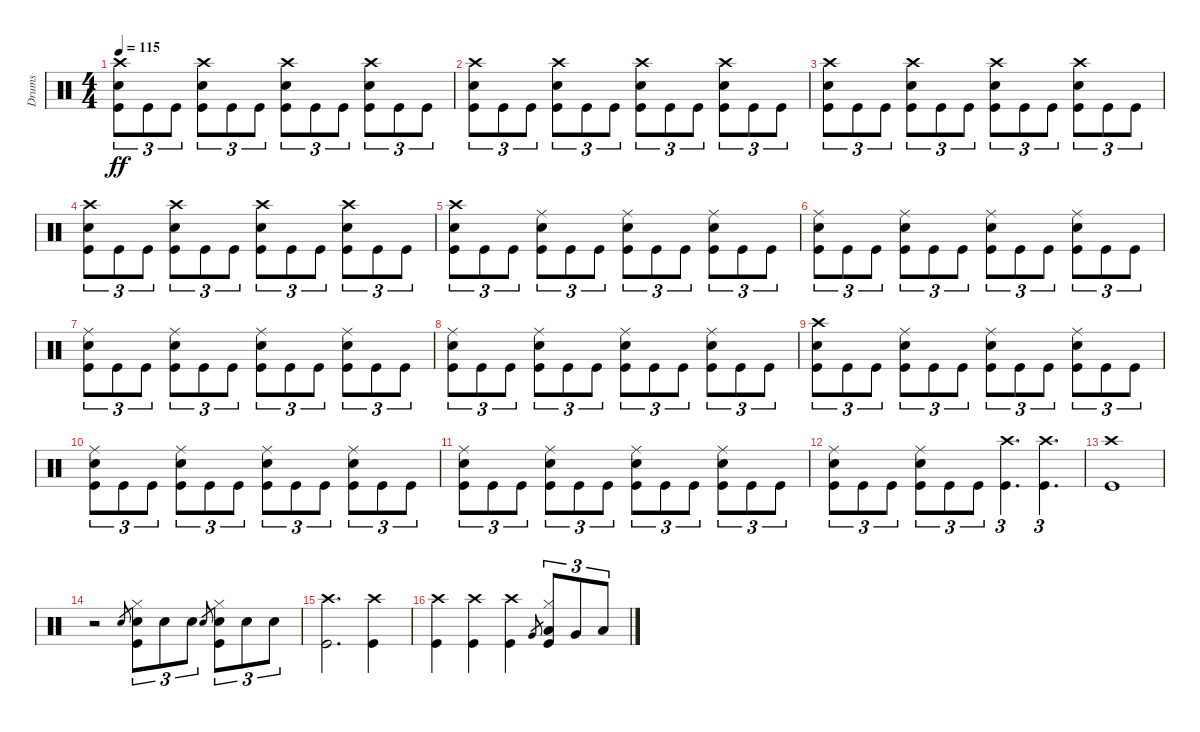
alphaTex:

\track ("Drums" "Drums") {instrument percussion}
\staff {score}
\articulation defaults
\ts (4 4)
\tempo 115
\clef neutral
\ks c
("Crash high (hit)" "Snare (hit) 2" "Kick (hit)").8{tu (3 2) dy ff} "Kick (hit)".8{tu (3 2)} "Kick (hit)".8{tu (3 2)} ("Crash high (hit)" "Snare (hit) 2" "Kick (hit)").8{tu (3 2)} "Kick (hit)".8{tu (3 2)} "Kick (hit)".8{tu (3 2)} ("Crash high (hit)" "Snare (hit) 2" "Kick (hit)").8{tu (3 2)} "Kick (hit)".8{tu (3 2)} "Kick (hit)".8{tu (3 2)} ("Crash high (hit)" "Snare (hit) 2" "Kick (hit)").8{tu (3 2)} "Kick (hit)".8{tu (3 2)} "Kick (hit)".8{tu (3 2)} |
("Crash high (hit)" "Snare (hit) 2" "Kick (hit)").8{tu (3 2)} "Kick (hit)".8{tu (3 2)} "Kick (hit)".8{tu (3 2)} ("Crash high (hit)" "Snare (hit) 2" "Kick (hit)").8{tu (3 2)} "Kick (hit)".8{tu (3 2)} "Kick (hit)".8{tu (3 2)} ("Crash high (hit)" "Snare (hit) 2" "Kick (hit)").8{tu (3 2)} "Kick (hit)".8{tu (3 2)} "Kick (hit)".8{tu (3 2)} ("Crash high (hit)" "Snare (hit) 2" "Kick (hit)").8{tu (3 2)} "Kick (hit)".8{tu (3 2)} "Kick (hit)".8{tu (3 2)} |
("Crash high (hit)" "Snare (hit) 2" "Kick (hit)").8{tu (3 2)} "Kick (hit)".8{tu (3 2)} "Kick (hit)".8{tu (3 2)} ("Crash high (hit)" "Snare (hit) 2" "Kick (hit)").8{tu (3 2)} "Kick (hit)".8{tu (3 2)} "Kick (hit)".8{tu (3 2)} ("Crash high (hit)" "Snare (hit) 2" "Kick (hit)").8{tu (3 2)} "Kick (hit)".8{tu (3 2)} "Kick (hit)".8{tu (3 2)} ("Crash high (hit)" "Snare (hit) 2" "Kick (hit)").8{tu (3 2)} "Kick (hit)".8{tu (3 2)} "Kick (hit)".8{tu (3 2)} |
("Crash high (hit)" "Snare (hit) 2" "Kick (hit)").8{tu (3 2)} "Kick (hit)".8{tu (3 2)} "Kick (hit)".8{tu (3 2)} ("Crash high (hit)" "Snare (hit) 2" "Kick (hit)").8{tu (3 2)} "Kick (hit)".8{tu (3 2)} "Kick (hit)".8{tu (3 2)} ("Crash high (hit)" "Snare (hit) 2" "Kick (hit)").8{tu (3 2)} "Kick (hit)".8{tu (3 2)} "Kick (hit)".8{tu (3 2)} ("Crash high (hit)" "Snare (hit) 2" "Kick (hit)").8{tu (3 2)} "Kick (hit)".8{tu (3 2)} "Kick (hit)".8{tu (3 2)} |
("Crash high (hit)" "Snare (hit) 2" "Kick (hit)").8{tu (3 2)} "Kick (hit)".8{tu (3 2)} "Kick (hit)".8{tu (3 2)} ("Ride (middle)" "Snare (hit) 2" "Kick (hit)").8{tu (3 2)} "Kick (hit)".8{tu (3 2)} "Kick (hit)".8{tu (3 2)} ("Ride (middle)" "Snare (hit) 2" "Kick (hit)").8{tu (3 2)} "Kick (hit)".8{tu (3 2)} "Kick (hit)".8{tu (3 2)} ("Ride (middle)" "Snare (hit) 2" "Kick (hit)").8{tu (3 2)} "Kick (hit)".8{tu (3 2)} "Kick (hit)".8{tu (3 2)} |
("Ride (middle)" "Snare (hit) 2" "Kick (hit)").8{tu (3 2)} "Kick (hit)".8{tu (3 2)} "Kick (hit)".8{tu (3 2)} ("Ride (middle)" "Snare (hit) 2" "Kick (hit)").8{tu (3 2)} "Kick (hit)".8{tu (3 2)} "Kick (hit)".8{tu (3 2)} ("Ride (middle)" "Snare (hit) 2" "Kick (hit)").8{tu (3 2)} "Kick (hit)".8{tu (3 2)} "Kick (hit)".8{tu (3 2)} ("Ride (middle)" "Snare (hit) 2" "Kick (hit)").8{tu (3 2)} "Kick (hit)".8{tu (3 2)} "Kick (hit)".8{tu (3 2)} |
("Ride (middle)" "Snare (hit) 2" "Kick (hit)").8{tu (3 2)} "Kick (hit)".8{tu (3 2)} "Kick (hit)".8{tu (3 2)} ("Ride (middle)" "Snare (hit) 2" "Kick (hit)").8{tu (3 2)} "Kick (hit)".8{tu (3 2)} "Kick (hit)".8{tu (3 2)} ("Ride (middle)" "Snare (hit) 2" "Kick (hit)").8{tu (3 2)} "Kick (hit)".8{tu (3 2)} "Kick (hit)".8{tu (3 2)} ("Ride (middle)" "Snare (hit) 2" "Kick (hit)").8{tu (3 2)} "Kick (hit)".8{tu (3 2)} "Kick (hit)".8{tu (3 2)} |
("Ride (middle)" "Snare (hit) 2" "Kick (hit)").8{tu (3 2)} "Kick (hit)".8{tu (3 2)} "Kick (hit)".8{tu (3 2)} ("Ride (middle)" "Snare (hit) 2" "Kick (hit)").8{tu (3 2)} "Kick (hit)".8{tu (3 2)} "Kick (hit)".8{tu (3 2)} ("Ride (middle)" "Snare (hit) 2" "Kick (hit)").8{tu (3 2)} "Kick (hit)".8{tu (3 2)} "Kick (hit)".8{tu (3 2)} ("Ride (middle)" "Snare (hit) 2" "Kick (hit)").8{tu (3 2)} "Kick (hit)".8{tu (3 2)} "Kick (hit)".8{tu (3 2)} |
("Crash high (hit)" "Snare (hit) 2" "Kick (hit)").8{tu (3 2)} "Kick (hit)".8{tu (3 2)} "Kick (hit)".8{tu (3 2)} ("Ride (middle)" "Snare (hit) 2" "Kick (hit)").8{tu (3 2)} "Kick (hit)".8{tu (3 2)} "Kick (hit)".8{tu (3 2)} ("Ride (middle)" "Snare (hit) 2" "Kick (hit)").8{tu (3 2)} "Kick (hit)".8{tu (3 2)} "Kick (hit)".8{tu (3 2)} ("Ride (middle)" "Snare (hit) 2" "Kick (hit)").8{tu (3 2)} "Kick (hit)".8{tu (3 2)} "Kick (hit)".8{tu (3 2)} |
("Ride (middle)" "Snare (hit) 2" "Kick (hit)").8{tu (3 2)} "Kick (hit)".8{tu (3 2)} "Kick (hit)".8{tu (3 2)} ("Ride (middle)" "Snare (hit) 2" "Kick (hit)").8{tu (3 2)} "Kick (hit)".8{tu (3 2)} "Kick (hit)".8{tu (3 2)} ("Ride (middle)" "Snare (hit) 2" "Kick (hit)").8{tu (3 2)} "Kick (hit)".8{tu (3 2)} "Kick (hit)".8{tu (3 2)} ("Ride (middle)" "Snare (hit) 2" "Kick (hit)").8{tu (3 2)} "Kick (hit)".8{tu (3 2)} "Kick (hit)".8{tu (3 2)} |
("Ride (middle)" "Snare (hit) 2" "Kick (hit)").8{tu (3 2)} "Kick (hit)".8{tu (3 2)} "Kick (hit)".8{tu (3 2)} ("Ride (middle)" "Snare (hit) 2" "Kick (hit)").8{tu (3 2)} "Kick (hit)".8{tu (3 2)} "Kick (hit)".8{tu (3 2)} ("Ride (middle)" "Snare (hit) 2" "Kick (hit)").8{tu (3 2)} "Kick (hit)".8{tu (3 2)} "Kick (hit)".8{tu (3 2)} ("Ride (middle)" "Snare (hit) 2" "Kick (hit)").8{tu (3 2)} "Kick (hit)".8{tu (3 2)} "Kick (hit)".8{tu (3 2)} |
("Ride (middle)" "Snare (hit) 2" "Kick (hit)").8{tu (3 2)} "Kick (hit)".8{tu (3 2)} "Kick (hit)".8{tu (3 2)} ("Ride (middle)" "Snare (hit) 2" "Kick (hit)").8{tu (3 2)} "Kick (hit)".8{tu (3 2)} "Kick (hit)".8{tu (3 2)} ("Crash high (hit)" "Kick (hit)").4{d tu (3 2)} ("Crash high (hit)" "Kick (hit)").4{d tu (3 2)} |
("Crash high (hit)" "Kick (hit)").1 |
r.2 "Snare (hit) 2".8{gr} ("Hi-Hat (closed)" "Snare (hit) 2" "Kick (hit)").8{tu (3 2)} "Snare (hit) 2".8{tu (3 2)} "Snare (hit) 2".8{tu (3 2)} "Snare (hit) 2".8{gr} ("Hi-Hat (closed)" "Snare (hit) 2" "Kick (hit)").8{tu (3 2)} "Snare (hit) 2".8{tu (3 2)} "Snare (hit) 2".8{tu (3 2)} |
("Crash high (hit)" "Kick (hit)").2{d} ("Crash high (hit)" "Kick (hit)").4 |
("Crash high (hit)" "Kick (hit)").4 ("Crash high (hit)" "Kick (hit)").4 ("Crash high (hit)" "Kick (hit)").4 "Very Low Tom (hit)".8{gr} ("Hi-Hat (closed)" "Low Tom (hit)" "Kick (hit)").8{tu (3 2)} "Very Low Tom (hit)".8{tu (3 2)} "Low Floor Tom (hit)".8{tu (3 2)}
